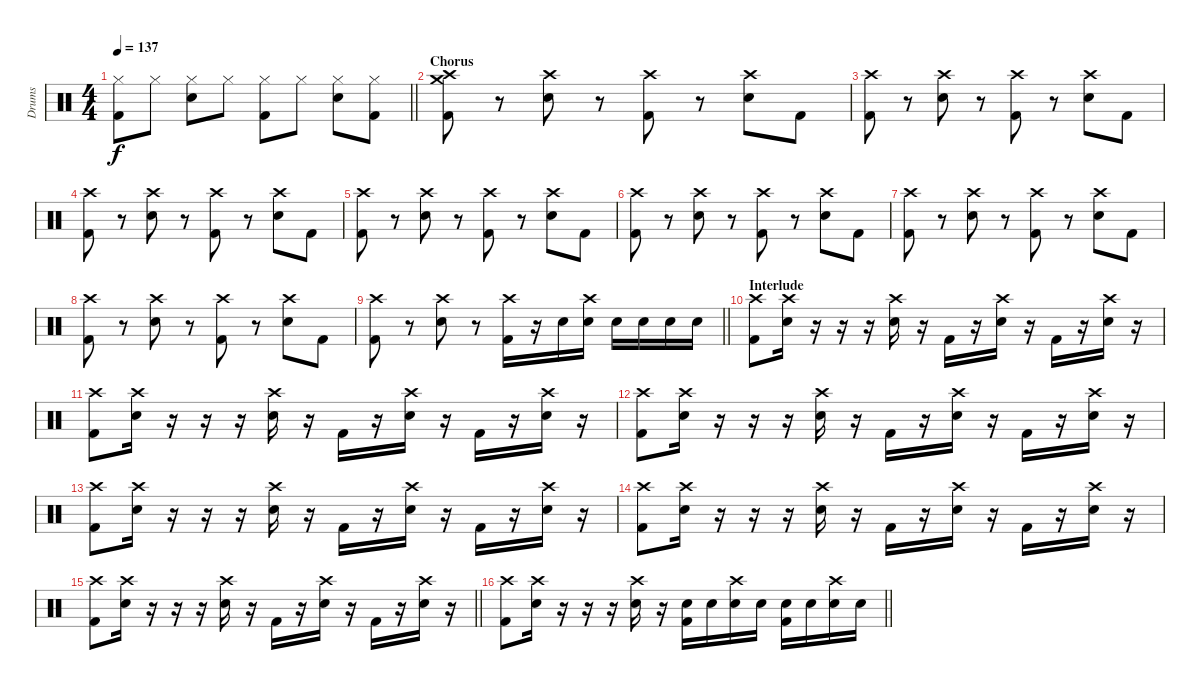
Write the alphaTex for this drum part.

\track ("Drums" "Drums") {instrument percussion}
\staff {score}
\articulation defaults
\ts (4 4)
\tempo 137
\clef neutral
\barLineRight lightlight
\ks c
("Hi-Hat (closed)" "Kick (hit) 2").8{dy f} "Hi-Hat (closed)".8 ("Hi-Hat (closed)" "Electric Snare (hit)").8 "Hi-Hat (closed)".8 ("Hi-Hat (closed)" "Kick (hit) 2").8 "Hi-Hat (closed)".8 ("Hi-Hat (closed)" "Electric Snare (hit)").8 ("Hi-Hat (closed)" "Kick (hit) 2").8 |
\section ("" "Chorus")
("Crash high (hit)" "Kick (hit) 2" "Crash medium (hit)").8 r.8 ("Crash high (hit)" "Electric Snare (hit)").8 r.8 ("Crash high (hit)" "Kick (hit) 2").8 r.8 ("Crash high (hit)" "Electric Snare (hit)").8 "Kick (hit) 2".8 |
("Crash high (hit)" "Kick (hit) 2").8 r.8 ("Crash high (hit)" "Electric Snare (hit)").8 r.8 ("Crash high (hit)" "Kick (hit) 2").8 r.8 ("Crash high (hit)" "Electric Snare (hit)").8 "Kick (hit) 2".8 |
("Crash high (hit)" "Kick (hit) 2").8 r.8 ("Crash high (hit)" "Electric Snare (hit)").8 r.8 ("Crash high (hit)" "Kick (hit) 2").8 r.8 ("Crash high (hit)" "Electric Snare (hit)").8 "Kick (hit) 2".8 |
("Crash high (hit)" "Kick (hit) 2").8 r.8 ("Crash high (hit)" "Electric Snare (hit)").8 r.8 ("Crash high (hit)" "Kick (hit) 2").8 r.8 ("Crash high (hit)" "Electric Snare (hit)").8 "Kick (hit) 2".8 |
("Crash high (hit)" "Kick (hit) 2").8 r.8 ("Crash high (hit)" "Electric Snare (hit)").8 r.8 ("Crash high (hit)" "Kick (hit) 2").8 r.8 ("Crash high (hit)" "Electric Snare (hit)").8 "Kick (hit) 2".8 |
("Crash high (hit)" "Kick (hit) 2").8 r.8 ("Crash high (hit)" "Electric Snare (hit)").8 r.8 ("Crash high (hit)" "Kick (hit) 2").8 r.8 ("Crash high (hit)" "Electric Snare (hit)").8 "Kick (hit) 2".8 |
("Crash high (hit)" "Kick (hit) 2").8 r.8 ("Crash high (hit)" "Electric Snare (hit)").8 r.8 ("Crash high (hit)" "Kick (hit) 2").8 r.8 ("Crash high (hit)" "Electric Snare (hit)").8 "Kick (hit) 2".8 |
\barLineRight lightlight
("Crash high (hit)" "Kick (hit) 2").8 r.8 ("Crash high (hit)" "Electric Snare (hit)").8 r.8 ("Crash high (hit)" "Kick (hit) 2").16 r.16 "Electric Snare (hit)".16 ("Crash high (hit)" "Electric Snare (hit)").16 "Electric Snare (hit)".16 "Electric Snare (hit)".16 "Electric Snare (hit)".16 "Electric Snare (hit)".16 |
\section ("" "Interlude")
("Crash high (hit)" "Kick (hit) 2").8 ("Crash high (hit)" "Electric Snare (hit)").16 r.16 r.16 r.16 ("Crash high (hit)" "Electric Snare (hit)").16 r.16 "Kick (hit) 2".16 r.16 ("Crash high (hit)" "Electric Snare (hit)").16 r.16 "Kick (hit) 2".16 r.16 ("Crash high (hit)" "Electric Snare (hit)").16 r.16 |
("Crash high (hit)" "Kick (hit) 2").8 ("Crash high (hit)" "Electric Snare (hit)").16 r.16 r.16 r.16 ("Crash high (hit)" "Electric Snare (hit)").16 r.16 "Kick (hit) 2".16 r.16 ("Crash high (hit)" "Electric Snare (hit)").16 r.16 "Kick (hit) 2".16 r.16 ("Crash high (hit)" "Electric Snare (hit)").16 r.16 |
("Crash high (hit)" "Kick (hit) 2").8 ("Crash high (hit)" "Electric Snare (hit)").16 r.16 r.16 r.16 ("Crash high (hit)" "Electric Snare (hit)").16 r.16 "Kick (hit) 2".16 r.16 ("Crash high (hit)" "Electric Snare (hit)").16 r.16 "Kick (hit) 2".16 r.16 ("Crash high (hit)" "Electric Snare (hit)").16 r.16 |
("Crash high (hit)" "Kick (hit) 2").8 ("Crash high (hit)" "Electric Snare (hit)").16 r.16 r.16 r.16 ("Crash high (hit)" "Electric Snare (hit)").16 r.16 "Kick (hit) 2".16 r.16 ("Crash high (hit)" "Electric Snare (hit)").16 r.16 "Kick (hit) 2".16 r.16 ("Crash high (hit)" "Electric Snare (hit)").16 r.16 |
("Crash high (hit)" "Kick (hit) 2").8 ("Crash high (hit)" "Electric Snare (hit)").16 r.16 r.16 r.16 ("Crash high (hit)" "Electric Snare (hit)").16 r.16 "Kick (hit) 2".16 r.16 ("Crash high (hit)" "Electric Snare (hit)").16 r.16 "Kick (hit) 2".16 r.16 ("Crash high (hit)" "Electric Snare (hit)").16 r.16 |
\barLineRight lightlight
("Crash high (hit)" "Kick (hit) 2").8 ("Crash high (hit)" "Electric Snare (hit)").16 r.16 r.16 r.16 ("Crash high (hit)" "Electric Snare (hit)").16 r.16 "Kick (hit) 2".16 r.16 ("Crash high (hit)" "Electric Snare (hit)").16 r.16 "Kick (hit) 2".16 r.16 ("Crash high (hit)" "Electric Snare (hit)").16 r.16 |
\barLineRight lightlight
("Crash high (hit)" "Kick (hit) 2").8 ("Crash high (hit)" "Electric Snare (hit)").16 r.16 r.16 r.16 ("Crash high (hit)" "Electric Snare (hit)").16 r.16 ("Electric Snare (hit)" "Kick (hit) 2").16 "Electric Snare (hit)".16 ("Crash high (hit)" "Electric Snare (hit)").16 "Electric Snare (hit)".16 ("Electric Snare (hit)" "Kick (hit) 2").16 "Electric Snare (hit)".16 ("Crash high (hit)" "Electric Snare (hit)").16 "Electric Snare (hit)".16
